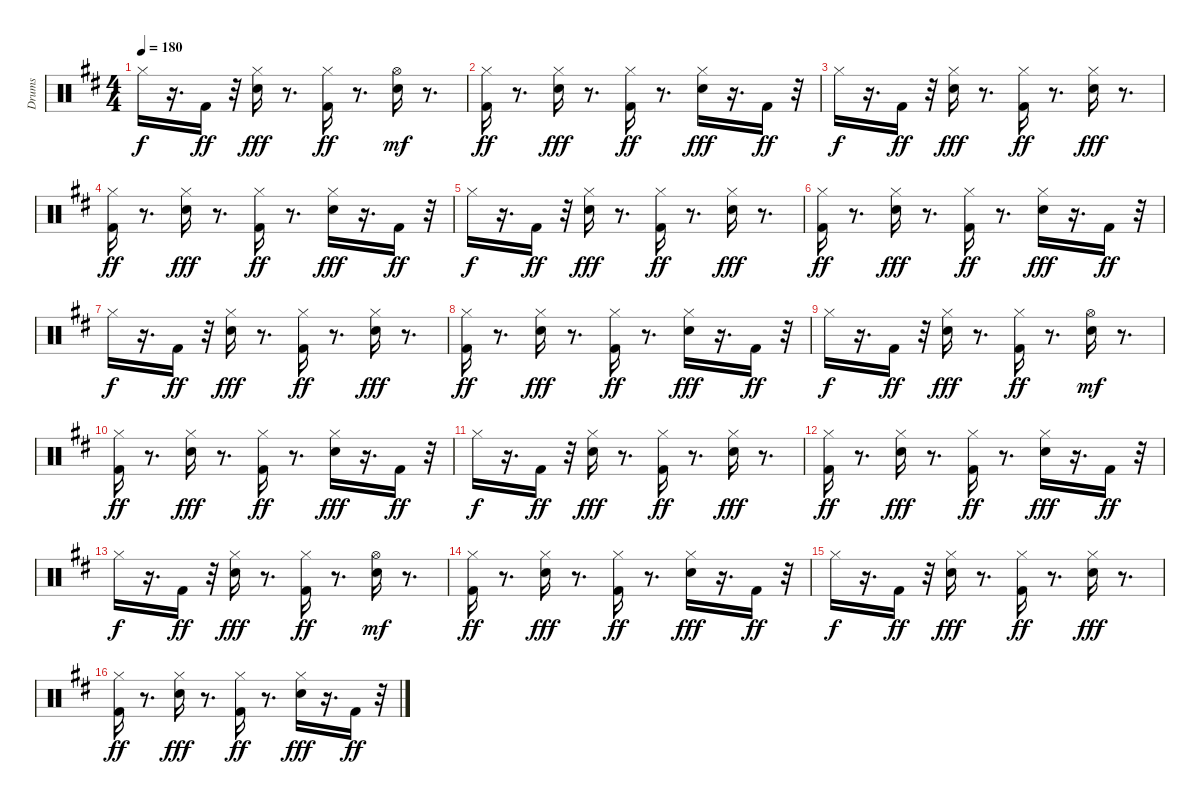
\track ("Drums" "Drums") {instrument percussion}
\staff {score}
\articulation defaults
\ts (4 4)
\tempo 180
\clef neutral
\ks bminor "Hi-Hat (closed)".16{dy f}
r.16{d} "Kick (hit) 2".16{dy ff} r.32 ("Snare (hit) 2" "Hi-Hat (closed)").16{dy fff} r.8{d} ("Kick (hit) 2" "Hi-Hat (closed)").16{dy ff} r.8{d} ("Snare (hit) 2" "Hi-Hat (open)").16{dy mf} r.8{d} |
("Kick (hit) 2" "Hi-Hat (closed)").16{dy ff} r.8{d} ("Snare (hit) 2" "Hi-Hat (closed)").16{dy fff} r.8{d} ("Kick (hit) 2" "Hi-Hat (closed)").16{dy ff} r.8{d} ("Snare (hit) 2" "Hi-Hat (closed)").16{dy fff} r.16{d} "Kick (hit) 2".16{dy ff} r.32 |
"Hi-Hat (closed)".16{dy f} r.16{d} "Kick (hit) 2".16{dy ff} r.32 ("Snare (hit) 2" "Hi-Hat (closed)").16{dy fff} r.8{d} ("Kick (hit) 2" "Hi-Hat (closed)").16{dy ff} r.8{d} ("Snare (hit) 2" "Hi-Hat (closed)").16{dy fff} r.8{d} |
("Kick (hit) 2" "Hi-Hat (closed)").16{dy ff} r.8{d} ("Snare (hit) 2" "Hi-Hat (closed)").16{dy fff} r.8{d} ("Kick (hit) 2" "Hi-Hat (closed)").16{dy ff} r.8{d} ("Snare (hit) 2" "Hi-Hat (closed)").16{dy fff} r.16{d} "Kick (hit) 2".16{dy ff} r.32 |
"Hi-Hat (closed)".16{dy f} r.16{d} "Kick (hit) 2".16{dy ff} r.32 ("Snare (hit) 2" "Hi-Hat (closed)").16{dy fff} r.8{d} ("Kick (hit) 2" "Hi-Hat (closed)").16{dy ff} r.8{d} ("Snare (hit) 2" "Hi-Hat (closed)").16{dy fff} r.8{d} |
("Kick (hit) 2" "Hi-Hat (closed)").16{dy ff} r.8{d} ("Snare (hit) 2" "Hi-Hat (closed)").16{dy fff} r.8{d} ("Kick (hit) 2" "Hi-Hat (closed)").16{dy ff} r.8{d} ("Snare (hit) 2" "Hi-Hat (closed)").16{dy fff} r.16{d} "Kick (hit) 2".16{dy ff} r.32 |
"Hi-Hat (closed)".16{dy f} r.16{d} "Kick (hit) 2".16{dy ff} r.32 ("Snare (hit) 2" "Hi-Hat (closed)").16{dy fff} r.8{d} ("Kick (hit) 2" "Hi-Hat (closed)").16{dy ff} r.8{d} ("Snare (hit) 2" "Hi-Hat (closed)").16{dy fff} r.8{d} |
("Kick (hit) 2" "Hi-Hat (closed)").16{dy ff} r.8{d} ("Snare (hit) 2" "Hi-Hat (closed)").16{dy fff} r.8{d} ("Kick (hit) 2" "Hi-Hat (closed)").16{dy ff} r.8{d} ("Snare (hit) 2" "Hi-Hat (closed)").16{dy fff} r.16{d} "Kick (hit) 2".16{dy ff} r.32 |
"Hi-Hat (closed)".16{dy f} r.16{d} "Kick (hit) 2".16{dy ff} r.32 ("Snare (hit) 2" "Hi-Hat (closed)").16{dy fff} r.8{d} ("Kick (hit) 2" "Hi-Hat (closed)").16{dy ff} r.8{d} ("Snare (hit) 2" "Hi-Hat (open)").16{dy mf} r.8{d} |
("Kick (hit) 2" "Hi-Hat (closed)").16{dy ff} r.8{d} ("Snare (hit) 2" "Hi-Hat (closed)").16{dy fff} r.8{d} ("Kick (hit) 2" "Hi-Hat (closed)").16{dy ff} r.8{d} ("Snare (hit) 2" "Hi-Hat (closed)").16{dy fff} r.16{d} "Kick (hit) 2".16{dy ff} r.32 |
"Hi-Hat (closed)".16{dy f} r.16{d} "Kick (hit) 2".16{dy ff} r.32 ("Snare (hit) 2" "Hi-Hat (closed)").16{dy fff} r.8{d} ("Kick (hit) 2" "Hi-Hat (closed)").16{dy ff} r.8{d} ("Snare (hit) 2" "Hi-Hat (closed)").16{dy fff} r.8{d} |
("Kick (hit) 2" "Hi-Hat (closed)").16{dy ff} r.8{d} ("Snare (hit) 2" "Hi-Hat (closed)").16{dy fff} r.8{d} ("Kick (hit) 2" "Hi-Hat (closed)").16{dy ff} r.8{d} ("Snare (hit) 2" "Hi-Hat (closed)").16{dy fff} r.16{d} "Kick (hit) 2".16{dy ff} r.32 |
"Hi-Hat (closed)".16{dy f} r.16{d} "Kick (hit) 2".16{dy ff} r.32 ("Snare (hit) 2" "Hi-Hat (closed)").16{dy fff} r.8{d} ("Kick (hit) 2" "Hi-Hat (closed)").16{dy ff} r.8{d} ("Snare (hit) 2" "Hi-Hat (open)").16{dy mf} r.8{d} |
("Kick (hit) 2" "Hi-Hat (closed)").16{dy ff} r.8{d} ("Snare (hit) 2" "Hi-Hat (closed)").16{dy fff} r.8{d} ("Kick (hit) 2" "Hi-Hat (closed)").16{dy ff} r.8{d} ("Snare (hit) 2" "Hi-Hat (closed)").16{dy fff} r.16{d} "Kick (hit) 2".16{dy ff} r.32 |
"Hi-Hat (closed)".16{dy f} r.16{d} "Kick (hit) 2".16{dy ff} r.32 ("Snare (hit) 2" "Hi-Hat (closed)").16{dy fff} r.8{d} ("Kick (hit) 2" "Hi-Hat (closed)").16{dy ff} r.8{d} ("Snare (hit) 2" "Hi-Hat (closed)").16{dy fff} r.8{d} |
("Kick (hit) 2" "Hi-Hat (closed)").16{dy ff} r.8{d} ("Snare (hit) 2" "Hi-Hat (closed)").16{dy fff} r.8{d} ("Kick (hit) 2" "Hi-Hat (closed)").16{dy ff} r.8{d} ("Snare (hit) 2" "Hi-Hat (closed)").16{dy fff} r.16{d} "Kick (hit) 2".16{dy ff} r.32
